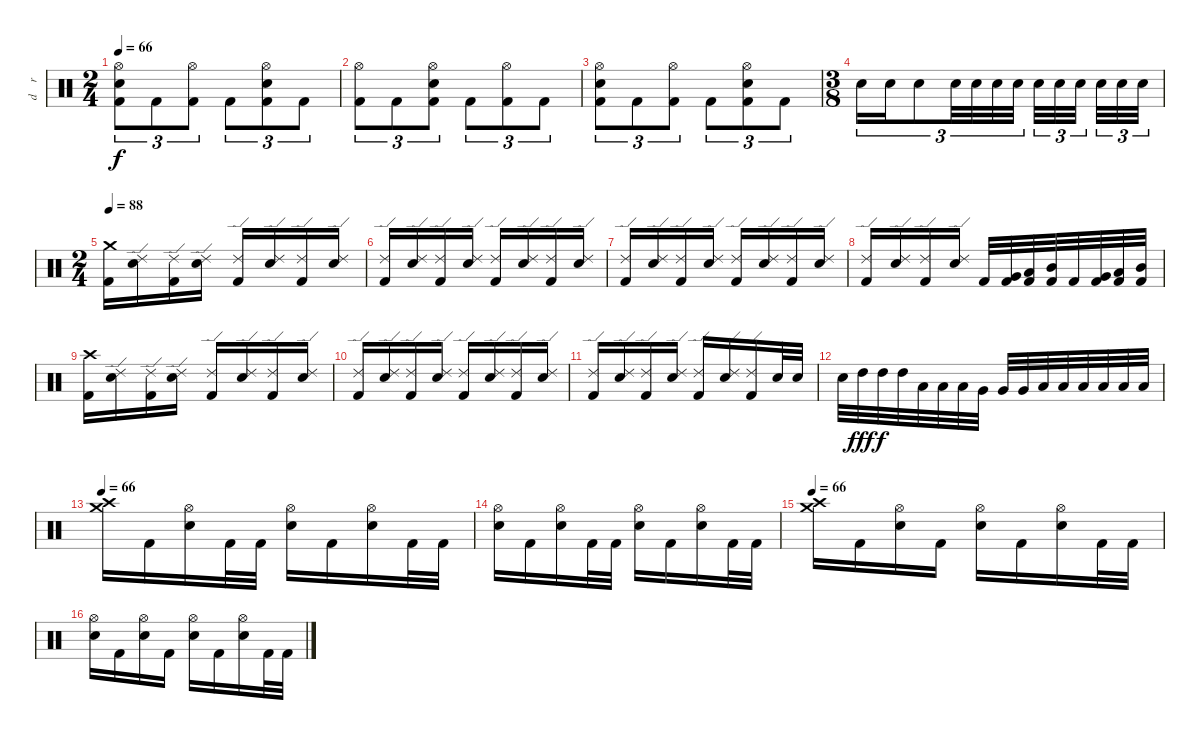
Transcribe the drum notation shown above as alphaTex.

\track ("d    r     u    m    s" "d    r    ") {instrument percussion}
\staff {score}
\articulation defaults
\ts (2 4)
\tempo 66
\clef neutral
\ks c
("Hi-Hat (open)" "Snare (hit) 2" "Kick (hit) 2").8{tu (3 2) dy f} "Kick (hit) 2".8{tu (3 2)} ("Hi-Hat (open)" "Kick (hit) 2").8{tu (3 2)} "Kick (hit) 2".8{tu (3 2)} ("Hi-Hat (open)" "Snare (hit) 2" "Kick (hit) 2").8{tu (3 2)} "Kick (hit) 2".8{tu (3 2)} |
("Hi-Hat (open)" "Kick (hit) 2").8{tu (3 2)} "Kick (hit) 2".8{tu (3 2)} ("Hi-Hat (open)" "Snare (hit) 2" "Kick (hit) 2").8{tu (3 2)} "Kick (hit) 2".8{tu (3 2)} ("Hi-Hat (open)" "Kick (hit) 2").8{tu (3 2)} "Kick (hit) 2".8{tu (3 2)} |
("Hi-Hat (open)" "Snare (hit) 2" "Kick (hit) 2").8{tu (3 2)} "Kick (hit) 2".8{tu (3 2)} ("Hi-Hat (open)" "Kick (hit) 2").8{tu (3 2)} "Kick (hit) 2".8{tu (3 2)} ("Hi-Hat (open)" "Snare (hit) 2" "Kick (hit) 2").8{tu (3 2)} "Kick (hit) 2".8{tu (3 2)} |
\ts (3 8)
"Snare (hit) 2".16{tu (3 2)} "Snare (hit) 2".16{tu (3 2)} "Snare (hit) 2".8{tu (3 2)} "Snare (hit) 2".32{tu (3 2)} "Snare (hit) 2".32{tu (3 2)} "Snare (hit) 2".32{tu (3 2)} "Snare (hit) 2".32{tu (3 2)} "Snare (hit) 2".32{tu (3 2)} "Snare (hit) 2".32{tu (3 2)} "Snare (hit) 2".32{tu (3 2) beam splitsecondary} "Snare (hit) 2".32{tu (3 2)} "Snare (hit) 2".32{tu (3 2)} "Snare (hit) 2".32{tu (3 2)} |
\ts (2 4)
\tempo 88
("Crash medium (hit)" "Kick (hit) 2").16 ("Ride (edge) 2" "Electric Snare (hit)").16 ("Ride (edge) 2" "Kick (hit) 2").16 ("Ride (edge) 2" "Electric Snare (hit)").16 ("Ride (edge) 2" "Kick (hit) 2").16 ("Ride (edge) 2" "Electric Snare (hit)").16 ("Ride (edge) 2" "Kick (hit) 2").16 ("Ride (edge) 2" "Electric Snare (hit)").16 |
("Ride (edge) 2" "Kick (hit) 2").16 ("Ride (edge) 2" "Electric Snare (hit)").16 ("Ride (edge) 2" "Kick (hit) 2").16 ("Ride (edge) 2" "Electric Snare (hit)").16 ("Ride (edge) 2" "Kick (hit) 2").16 ("Ride (edge) 2" "Electric Snare (hit)").16 ("Ride (edge) 2" "Kick (hit) 2").16 ("Ride (edge) 2" "Electric Snare (hit)").16 |
("Ride (edge) 2" "Kick (hit) 2").16 ("Ride (edge) 2" "Electric Snare (hit)").16 ("Ride (edge) 2" "Kick (hit) 2").16 ("Ride (edge) 2" "Electric Snare (hit)").16 ("Ride (edge) 2" "Kick (hit) 2").16 ("Ride (edge) 2" "Electric Snare (hit)").16 ("Ride (edge) 2" "Kick (hit) 2").16 ("Ride (edge) 2" "Electric Snare (hit)").16 |
("Ride (edge) 2" "Kick (hit) 2").16 ("Ride (edge) 2" "Electric Snare (hit)").16 ("Ride (edge) 2" "Kick (hit) 2").16 ("Ride (edge) 2" "Electric Snare (hit)").16 "Kick (hit) 2".32 ("Very Low Tom (hit)" "Kick (hit) 2").32 ("Low Tom (hit)" "Kick (hit) 2").32 ("Mid Tom (hit)" "Kick (hit) 2").32 "Kick (hit) 2".32 ("Very Low Tom (hit)" "Kick (hit) 2").32 ("Low Tom (hit)" "Kick (hit) 2").32 ("Mid Tom (hit)" "Kick (hit) 2").32 |
("Crash high (hit)" "Kick (hit) 2").16 ("Ride (edge) 2" "Electric Snare (hit)").16 ("Ride (edge) 2" "Kick (hit) 2").16 ("Ride (edge) 2" "Electric Snare (hit)").16 ("Ride (edge) 2" "Kick (hit) 2").16 ("Ride (edge) 2" "Electric Snare (hit)").16 ("Ride (edge) 2" "Kick (hit) 2").16 ("Ride (edge) 2" "Electric Snare (hit)").16 |
("Ride (edge) 2" "Kick (hit) 2").16 ("Ride (edge) 2" "Electric Snare (hit)").16 ("Ride (edge) 2" "Kick (hit) 2").16 ("Ride (edge) 2" "Electric Snare (hit)").16 ("Ride (edge) 2" "Kick (hit) 2").16 ("Ride (edge) 2" "Electric Snare (hit)").16 ("Ride (edge) 2" "Kick (hit) 2").16 ("Ride (edge) 2" "Electric Snare (hit)").16 |
("Ride (edge) 2" "Kick (hit) 2").16 ("Ride (edge) 2" "Electric Snare (hit)").16 ("Ride (edge) 2" "Kick (hit) 2").16 ("Ride (edge) 2" "Electric Snare (hit)").16 ("Ride (edge) 2" "Kick (hit) 2").16 ("Ride (edge) 2" "Electric Snare (hit)").16 ("Ride (edge) 2" "Kick (hit) 2").16 "Electric Snare (hit)".32 "Electric Snare (hit)".32 |
"Electric Snare (hit)".32 "High Tom (hit)".32{dy fff} "High Tom (hit)".32{dy f} "High Tom (hit)".32 "Low Tom (hit)".32 "Low Tom (hit)".32 "Low Tom (hit)".32 "Very Low Tom (hit)".32 "Very Low Tom (hit)".32 "Very Low Tom (hit)".32 "Low Floor Tom (hit)".32 "Low Floor Tom (hit)".32 "Low Floor Tom (hit)".32 "Low Floor Tom (hit)".32 "Low Floor Tom (hit)".32 "Low Floor Tom (hit)".32 |
\tempo 66
("Crash high (hit)" "Crash medium (hit)").16 "Kick (hit) 2".16 ("Hi-Hat (open)" "Snare (hit) 2").16 "Kick (hit) 2".32 "Kick (hit) 2".32 ("Hi-Hat (open)" "Snare (hit) 2").16 "Kick (hit) 2".16 ("Hi-Hat (open)" "Snare (hit) 2").16 "Kick (hit) 2".32 "Kick (hit) 2".32 |
("Hi-Hat (open)" "Snare (hit) 2").16 "Kick (hit) 2".16 ("Hi-Hat (open)" "Snare (hit) 2").16 "Kick (hit) 2".32 "Kick (hit) 2".32 ("Hi-Hat (open)" "Snare (hit) 2").16 "Kick (hit) 2".16 ("Hi-Hat (open)" "Snare (hit) 2").16 "Kick (hit) 2".32 "Kick (hit) 2".32 |
\tempo 66
("Crash high (hit)" "Crash medium (hit)").16 "Kick (hit) 2".16 ("Hi-Hat (open)" "Snare (hit) 2").16 "Kick (hit) 2".16 ("Hi-Hat (open)" "Snare (hit) 2").16 "Kick (hit) 2".16 ("Hi-Hat (open)" "Snare (hit) 2").16 "Kick (hit) 2".32 "Kick (hit) 2".32 |
("Hi-Hat (open)" "Snare (hit) 2").16 "Kick (hit) 2".16 ("Hi-Hat (open)" "Snare (hit) 2").16 "Kick (hit) 2".16 ("Hi-Hat (open)" "Snare (hit) 2").16 "Kick (hit) 2".16 ("Hi-Hat (open)" "Snare (hit) 2").16 "Kick (hit) 2".32 "Kick (hit) 2".32
